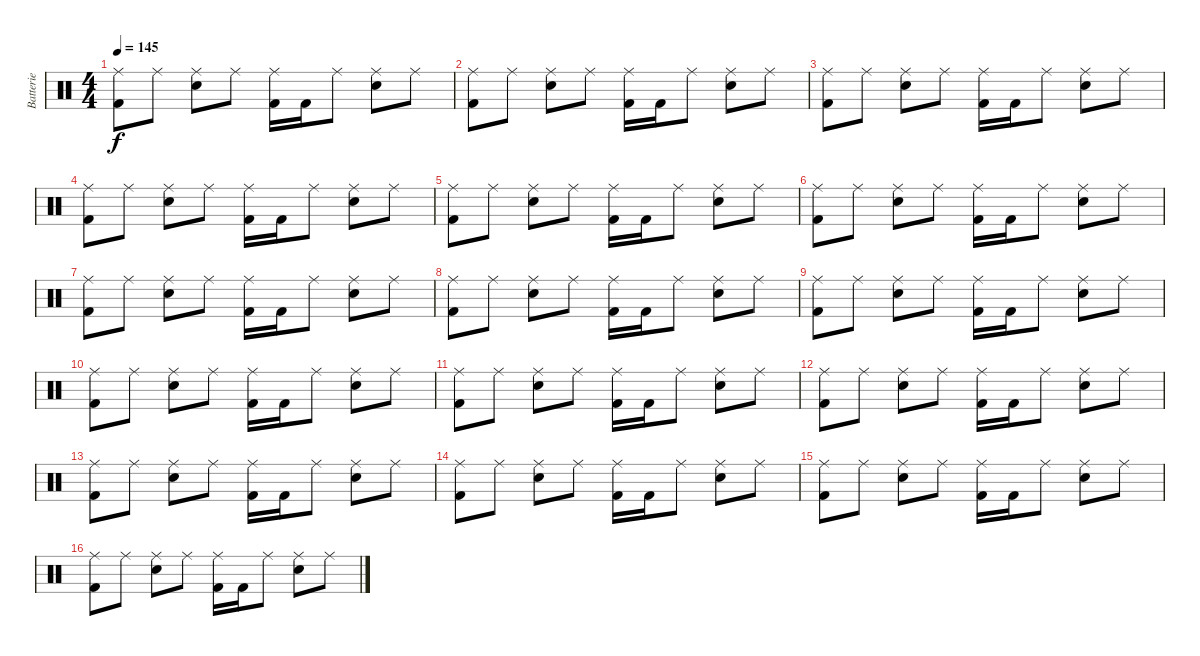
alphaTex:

\track ("Batterie" "Batterie") {instrument percussion}
\staff {score}
\articulation defaults
\ts (4 4)
\tempo 145
\clef neutral
\ks c
("Ride (middle)" "Kick (hit) 2").8{dy f} "Ride (middle)".8 ("Ride (middle)" "Snare (hit) 2").8 "Ride (middle)".8 ("Ride (middle)" "Kick (hit) 2").16 "Kick (hit) 2".16 "Ride (middle)".8 ("Ride (middle)" "Snare (hit) 2").8 "Ride (middle)".8 |
\section ("" "")
("Ride (middle)" "Kick (hit) 2").8 "Ride (middle)".8 ("Ride (middle)" "Snare (hit) 2").8 "Ride (middle)".8 ("Ride (middle)" "Kick (hit) 2").16 "Kick (hit) 2".16 "Ride (middle)".8 ("Ride (middle)" "Snare (hit) 2").8 "Ride (middle)".8 |
("Ride (middle)" "Kick (hit) 2").8 "Ride (middle)".8 ("Ride (middle)" "Snare (hit) 2").8 "Ride (middle)".8 ("Ride (middle)" "Kick (hit) 2").16 "Kick (hit) 2".16 "Ride (middle)".8 ("Ride (middle)" "Snare (hit) 2").8 "Ride (middle)".8 |
("Ride (middle)" "Kick (hit) 2").8 "Ride (middle)".8 ("Ride (middle)" "Snare (hit) 2").8 "Ride (middle)".8 ("Ride (middle)" "Kick (hit) 2").16 "Kick (hit) 2".16 "Ride (middle)".8 ("Ride (middle)" "Snare (hit) 2").8 "Ride (middle)".8 |
("Ride (middle)" "Kick (hit) 2").8 "Ride (middle)".8 ("Ride (middle)" "Snare (hit) 2").8 "Ride (middle)".8 ("Ride (middle)" "Kick (hit) 2").16 "Kick (hit) 2".16 "Ride (middle)".8 ("Ride (middle)" "Snare (hit) 2").8 "Ride (middle)".8 |
("Ride (middle)" "Kick (hit) 2").8 "Ride (middle)".8 ("Ride (middle)" "Snare (hit) 2").8 "Ride (middle)".8 ("Ride (middle)" "Kick (hit) 2").16 "Kick (hit) 2".16 "Ride (middle)".8 ("Ride (middle)" "Snare (hit) 2").8 "Ride (middle)".8 |
("Ride (middle)" "Kick (hit) 2").8 "Ride (middle)".8 ("Ride (middle)" "Snare (hit) 2").8 "Ride (middle)".8 ("Ride (middle)" "Kick (hit) 2").16 "Kick (hit) 2".16 "Ride (middle)".8 ("Ride (middle)" "Snare (hit) 2").8 "Ride (middle)".8 |
("Ride (middle)" "Kick (hit) 2").8 "Ride (middle)".8 ("Ride (middle)" "Snare (hit) 2").8 "Ride (middle)".8 ("Ride (middle)" "Kick (hit) 2").16 "Kick (hit) 2".16 "Ride (middle)".8 ("Ride (middle)" "Snare (hit) 2").8 "Ride (middle)".8 |
("Ride (middle)" "Kick (hit) 2").8 "Ride (middle)".8 ("Ride (middle)" "Snare (hit) 2").8 "Ride (middle)".8 ("Ride (middle)" "Kick (hit) 2").16 "Kick (hit) 2".16 "Ride (middle)".8 ("Ride (middle)" "Snare (hit) 2").8 "Ride (middle)".8 |
("Ride (middle)" "Kick (hit) 2").8 "Ride (middle)".8 ("Ride (middle)" "Snare (hit) 2").8 "Ride (middle)".8 ("Ride (middle)" "Kick (hit) 2").16 "Kick (hit) 2".16 "Ride (middle)".8 ("Ride (middle)" "Snare (hit) 2").8 "Ride (middle)".8 |
("Ride (middle)" "Kick (hit) 2").8 "Ride (middle)".8 ("Ride (middle)" "Snare (hit) 2").8 "Ride (middle)".8 ("Ride (middle)" "Kick (hit) 2").16 "Kick (hit) 2".16 "Ride (middle)".8 ("Ride (middle)" "Snare (hit) 2").8 "Ride (middle)".8 |
("Ride (middle)" "Kick (hit) 2").8 "Ride (middle)".8 ("Ride (middle)" "Snare (hit) 2").8 "Ride (middle)".8 ("Ride (middle)" "Kick (hit) 2").16 "Kick (hit) 2".16 "Ride (middle)".8 ("Ride (middle)" "Snare (hit) 2").8 "Ride (middle)".8 |
("Ride (middle)" "Kick (hit) 2").8 "Ride (middle)".8 ("Ride (middle)" "Snare (hit) 2").8 "Ride (middle)".8 ("Ride (middle)" "Kick (hit) 2").16 "Kick (hit) 2".16 "Ride (middle)".8 ("Ride (middle)" "Snare (hit) 2").8 "Ride (middle)".8 |
("Ride (middle)" "Kick (hit) 2").8 "Ride (middle)".8 ("Ride (middle)" "Snare (hit) 2").8 "Ride (middle)".8 ("Ride (middle)" "Kick (hit) 2").16 "Kick (hit) 2".16 "Ride (middle)".8 ("Ride (middle)" "Snare (hit) 2").8 "Ride (middle)".8 |
("Ride (middle)" "Kick (hit) 2").8 "Ride (middle)".8 ("Ride (middle)" "Snare (hit) 2").8 "Ride (middle)".8 ("Ride (middle)" "Kick (hit) 2").16 "Kick (hit) 2".16 "Ride (middle)".8 ("Ride (middle)" "Snare (hit) 2").8 "Ride (middle)".8 |
("Ride (middle)" "Kick (hit) 2").8 "Ride (middle)".8 ("Ride (middle)" "Snare (hit) 2").8 "Ride (middle)".8 ("Ride (middle)" "Kick (hit) 2").16 "Kick (hit) 2".16 "Ride (middle)".8 ("Ride (middle)" "Snare (hit) 2").8 "Ride (middle)".8
